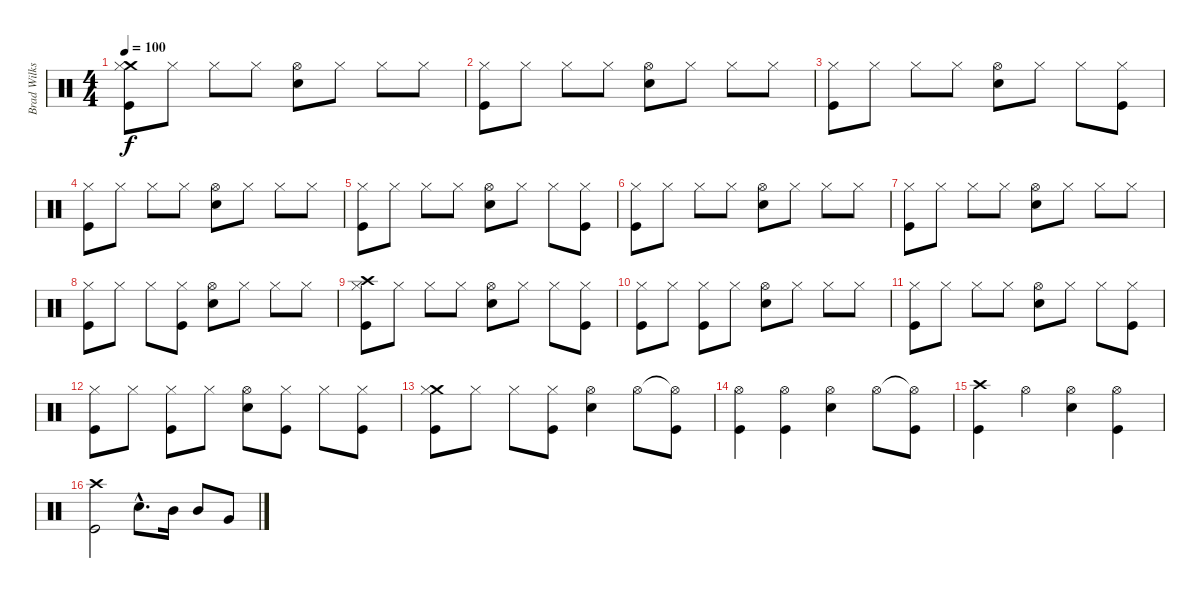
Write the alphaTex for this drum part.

\track ("Brad Wilks (Percussion)" "Brad Wilks") {instrument percussion}
\staff {score}
\articulation defaults
\ts (4 4)
\tempo 100
\clef neutral
\ks c
("Crash medium (hit)" "Hi-Hat (closed)" "Kick (hit)").8{dy f} "Hi-Hat (closed)".8 "Hi-Hat (closed)".8 "Hi-Hat (closed)".8 ("Hi-Hat (open)" "Electric Snare (hit)").8 "Hi-Hat (closed)".8 "Hi-Hat (closed)".8 "Hi-Hat (closed)".8 |
("Hi-Hat (closed)" "Kick (hit)").8 "Hi-Hat (closed)".8 "Hi-Hat (closed)".8 "Hi-Hat (closed)".8 ("Hi-Hat (open)" "Electric Snare (hit)").8 "Hi-Hat (closed)".8 "Hi-Hat (closed)".8 "Hi-Hat (closed)".8 |
("Hi-Hat (closed)" "Kick (hit)").8 "Hi-Hat (closed)".8 "Hi-Hat (closed)".8 "Hi-Hat (closed)".8 ("Hi-Hat (open)" "Electric Snare (hit)").8 "Hi-Hat (closed)".8 "Hi-Hat (closed)".8 ("Hi-Hat (closed)" "Kick (hit)").8 |
("Hi-Hat (closed)" "Kick (hit)").8 "Hi-Hat (closed)".8 "Hi-Hat (closed)".8 "Hi-Hat (closed)".8 ("Hi-Hat (open)" "Electric Snare (hit)").8 "Hi-Hat (closed)".8 "Hi-Hat (closed)".8 "Hi-Hat (closed)".8 |
("Hi-Hat (closed)" "Kick (hit)").8 "Hi-Hat (closed)".8 "Hi-Hat (closed)".8 "Hi-Hat (closed)".8 ("Hi-Hat (open)" "Electric Snare (hit)").8 "Hi-Hat (closed)".8 "Hi-Hat (closed)".8 ("Hi-Hat (closed)" "Kick (hit)").8 |
("Hi-Hat (closed)" "Kick (hit)").8 "Hi-Hat (closed)".8 "Hi-Hat (closed)".8 "Hi-Hat (closed)".8 ("Hi-Hat (open)" "Electric Snare (hit)").8 "Hi-Hat (closed)".8 "Hi-Hat (closed)".8 "Hi-Hat (closed)".8 |
("Hi-Hat (closed)" "Kick (hit)").8 "Hi-Hat (closed)".8 "Hi-Hat (closed)".8 "Hi-Hat (closed)".8 ("Hi-Hat (open)" "Electric Snare (hit)").8 "Hi-Hat (closed)".8 "Hi-Hat (closed)".8 "Hi-Hat (closed)".8 |
("Hi-Hat (closed)" "Kick (hit)").8 "Hi-Hat (closed)".8 "Hi-Hat (closed)".8 ("Hi-Hat (closed)" "Kick (hit)").8 ("Hi-Hat (open)" "Electric Snare (hit)").8 "Hi-Hat (closed)".8 "Hi-Hat (closed)".8 "Hi-Hat (closed)".8 |
("Crash high (hit)" "Hi-Hat (closed)" "Kick (hit)").8 "Hi-Hat (closed)".8 "Hi-Hat (closed)".8 "Hi-Hat (closed)".8 ("Hi-Hat (open)" "Electric Snare (hit)").8 "Hi-Hat (closed)".8 "Hi-Hat (closed)".8 ("Hi-Hat (closed)" "Kick (hit)").8 |
("Hi-Hat (closed)" "Kick (hit)").8 "Hi-Hat (closed)".8 ("Hi-Hat (closed)" "Kick (hit)").8 "Hi-Hat (closed)".8 ("Hi-Hat (open)" "Electric Snare (hit)").8 "Hi-Hat (closed)".8 "Hi-Hat (closed)".8 "Hi-Hat (closed)".8 |
("Hi-Hat (closed)" "Kick (hit)").8 "Hi-Hat (closed)".8 "Hi-Hat (closed)".8 "Hi-Hat (closed)".8 ("Hi-Hat (open)" "Electric Snare (hit)").8 "Hi-Hat (closed)".8 "Hi-Hat (closed)".8 ("Hi-Hat (closed)" "Kick (hit)").8 |
("Hi-Hat (closed)" "Kick (hit)").8 "Hi-Hat (closed)".8 ("Hi-Hat (closed)" "Kick (hit)").8 "Hi-Hat (closed)".8 ("Hi-Hat (open)" "Electric Snare (hit)").8 ("Hi-Hat (closed)" "Kick (hit)").8 "Hi-Hat (closed)".8 ("Hi-Hat (closed)" "Kick (hit)").8 |
("Crash medium (hit)" "Hi-Hat (closed)" "Kick (hit)").8 "Hi-Hat (closed)".8 "Hi-Hat (closed)".8 ("Hi-Hat (closed)" "Kick (hit)").8 ("Hi-Hat (open)" "Electric Snare (hit)").4 "Hi-Hat (open)".8 ("Hi-Hat (open)"{t} "Kick (hit)").8 |
("Hi-Hat (open)" "Kick (hit)").4 ("Hi-Hat (open)" "Kick (hit)").4 ("Hi-Hat (open)" "Electric Snare (hit)").4 "Hi-Hat (open)".8 ("Hi-Hat (open)"{t} "Kick (hit)").8 |
("Crash high (hit)" "Kick (hit)").4 "Hi-Hat (open)".4 ("Hi-Hat (open)" "Electric Snare (hit)").4 ("Hi-Hat (open)" "Kick (hit)").4 |
("Crash high (hit)" "Kick (hit)").2 "Electric Snare (hit)"{hac}.8{d} "Mid Tom (hit)".16 "Mid Tom (hit)".8 "Very Low Tom (hit)".8
